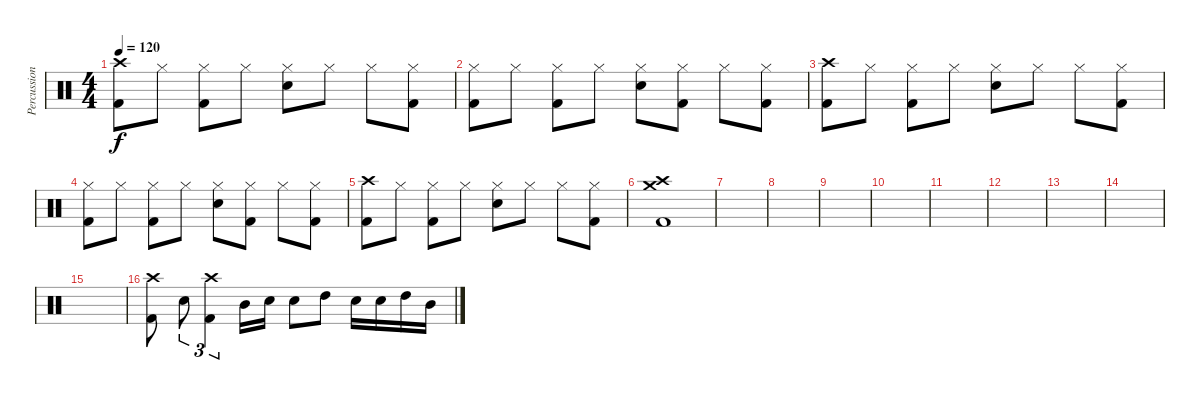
\track ("Percussion" "Percussion") {instrument percussion}
\staff {score}
\articulation defaults
\ts (4 4)
\tempo 120
\clef neutral
\ks c
("Crash high (hit)" "Kick (hit) 2").8{dy f} "Hi-Hat (closed)".8 ("Hi-Hat (closed)" "Kick (hit) 2").8 "Hi-Hat (closed)".8 ("Hi-Hat (closed)" "Snare (hit) 2").8 "Hi-Hat (closed)".8 "Hi-Hat (closed)".8 ("Hi-Hat (closed)" "Kick (hit) 2").8 |
("Hi-Hat (closed)" "Kick (hit) 2").8 "Hi-Hat (closed)".8 ("Hi-Hat (closed)" "Kick (hit) 2").8 "Hi-Hat (closed)".8 ("Hi-Hat (closed)" "Snare (hit) 2").8 ("Hi-Hat (closed)" "Kick (hit) 2").8 "Hi-Hat (closed)".8 ("Hi-Hat (closed)" "Kick (hit) 2").8 |
("Crash high (hit)" "Kick (hit) 2").8 "Hi-Hat (closed)".8 ("Hi-Hat (closed)" "Kick (hit) 2").8 "Hi-Hat (closed)".8 ("Hi-Hat (closed)" "Snare (hit) 2").8 "Hi-Hat (closed)".8 "Hi-Hat (closed)".8 ("Hi-Hat (closed)" "Kick (hit) 2").8 |
("Hi-Hat (closed)" "Kick (hit) 2").8 "Hi-Hat (closed)".8 ("Hi-Hat (closed)" "Kick (hit) 2").8 "Hi-Hat (closed)".8 ("Hi-Hat (closed)" "Snare (hit) 2").8 ("Hi-Hat (closed)" "Kick (hit) 2").8 "Hi-Hat (closed)".8 ("Hi-Hat (closed)" "Kick (hit) 2").8 |
("Crash high (hit)" "Kick (hit) 2").8 "Hi-Hat (closed)".8 ("Hi-Hat (closed)" "Kick (hit) 2").8 "Hi-Hat (closed)".8 ("Hi-Hat (closed)" "Snare (hit) 2").8 "Hi-Hat (closed)".8 "Hi-Hat (closed)".8 ("Hi-Hat (closed)" "Kick (hit) 2").8 |
("Crash high (hit)" "Crash medium (hit)" "Kick (hit) 2").1 |
|
|
|
|
|
|
|
|
|
("Crash high (hit)" "Kick (hit) 2").8 "Snare (hit) 2".8{tu (3 2)} ("Crash high (hit)" "Kick (hit) 2").4{tu (3 2)} "Mid Tom (hit)".16 "Snare (hit) 2".16 "Snare (hit) 2".8 "High Tom (hit)".8 "Snare (hit) 2".16 "Snare (hit) 2".16 "High Tom (hit)".16 "Mid Tom (hit)".16
